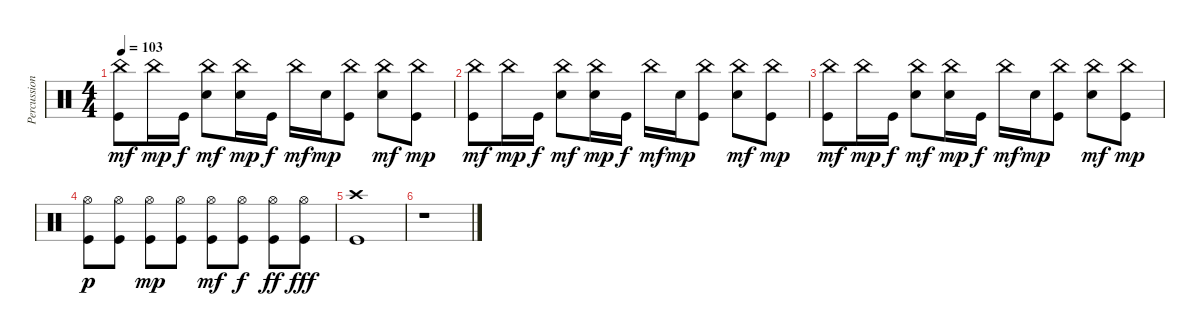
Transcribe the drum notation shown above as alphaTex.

\track ("Percussion" "Percussion") {instrument percussion}
\staff {score}
\articulation defaults
\ts (4 4)
\tempo 103
\clef neutral
\ks c
("China (hit)" "Kick (hit)").8{dy mf} "China (hit)".16{dy mp} "Kick (hit)".16{dy f} ("China (hit)" "Electric Snare (hit)").8{dy mf} ("China (hit)" "Electric Snare (hit)").16{dy mp} "Kick (hit)".16{dy f} "China (hit)".16{dy mf} "Electric Snare (hit)".16{dy mp} ("China (hit)" "Kick (hit)").8 ("China (hit)" "Electric Snare (hit)").8{dy mf} ("China (hit)" "Kick (hit)").8{dy mp} |
("China (hit)" "Kick (hit)").8{dy mf} "China (hit)".16{dy mp} "Kick (hit)".16{dy f} ("China (hit)" "Electric Snare (hit)").8{dy mf} ("China (hit)" "Electric Snare (hit)").16{dy mp} "Kick (hit)".16{dy f} "China (hit)".16{dy mf} "Electric Snare (hit)".16{dy mp} ("China (hit)" "Kick (hit)").8 ("China (hit)" "Electric Snare (hit)").8{dy mf} ("China (hit)" "Kick (hit)").8{dy mp} |
("China (hit)" "Kick (hit)").8{dy mf} "China (hit)".16{dy mp} "Kick (hit)".16{dy f} ("China (hit)" "Electric Snare (hit)").8{dy mf} ("China (hit)" "Electric Snare (hit)").16{dy mp} "Kick (hit)".16{dy f} "China (hit)".16{dy mf} "Electric Snare (hit)".16{dy mp} ("China (hit)" "Kick (hit)").8 ("China (hit)" "Electric Snare (hit)").8{dy mf} ("China (hit)" "Kick (hit)").8{dy mp} |
("Hi-Hat (open)" "Kick (hit)").8{dy p} ("Hi-Hat (open)" "Kick (hit)").8 ("Hi-Hat (open)" "Kick (hit)").8{dy mp} ("Hi-Hat (open)" "Kick (hit)").8 ("Hi-Hat (open)" "Kick (hit)").8{dy mf} ("Hi-Hat (open)" "Kick (hit)").8{dy f} ("Hi-Hat (open)" "Kick (hit)").8{dy ff} ("Hi-Hat (open)" "Kick (hit)").8{dy fff} |
("Crash high (hit)" "Kick (hit)").1{volume 0} |
r.1
